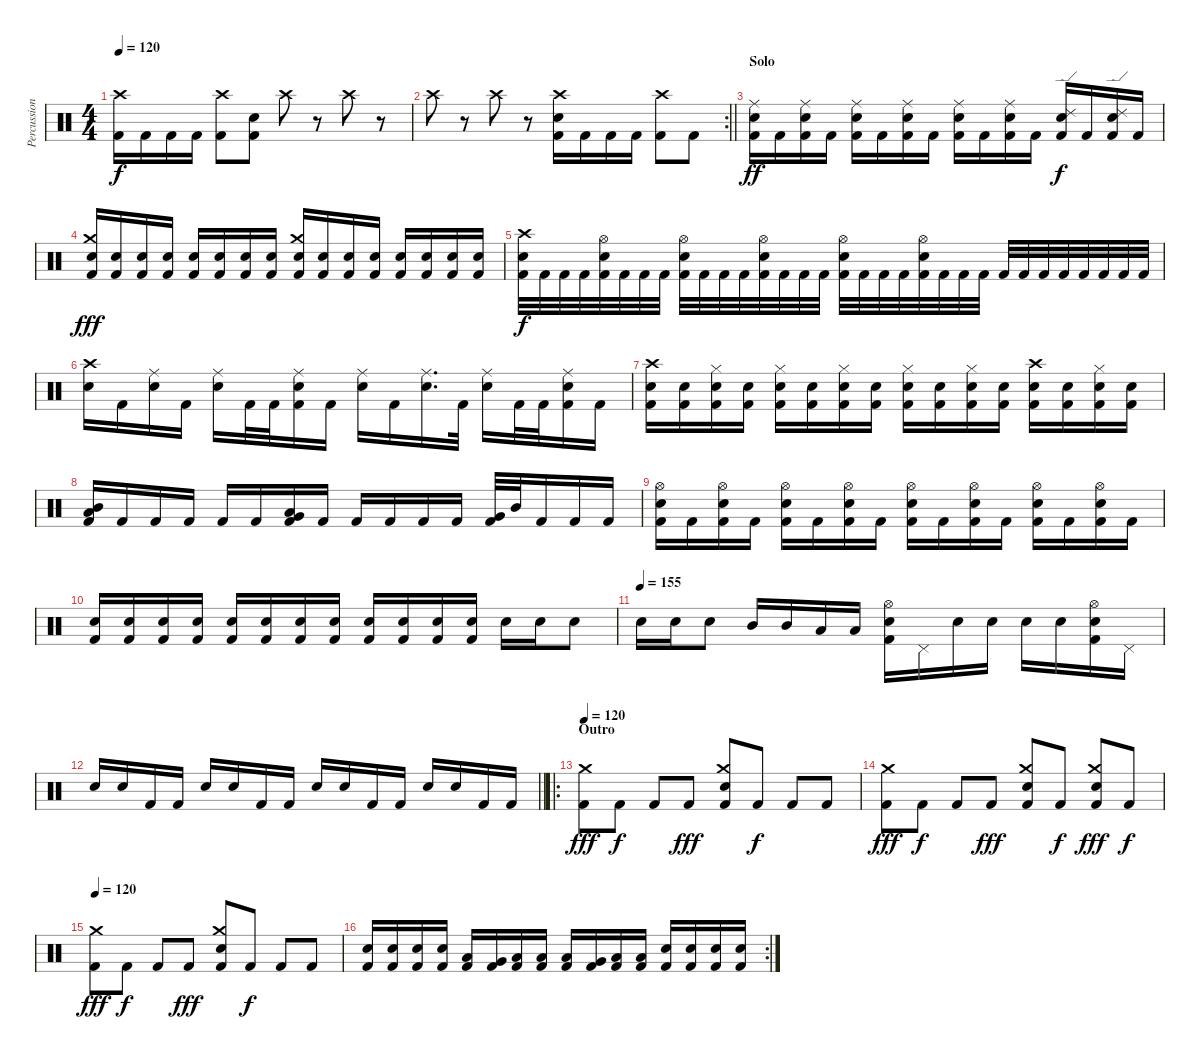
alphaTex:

\track ("Percussions" "Percussion") {instrument percussion}
\staff {score}
\articulation defaults
\ts (4 4)
\tempo 120
\clef neutral
\ks c
("Crash high (hit)" "Kick (hit) 2").16{dy f} "Kick (hit) 2".16 "Kick (hit) 2".16 "Kick (hit) 2".16 ("Crash high (hit)" "Kick (hit) 2").8 ("Electric Snare (hit)" "Kick (hit) 2").8 "Crash high (hit)".8 r.8 "Crash high (hit)".8 r.8 |
\rc 2
\barLineRight lightlight "Crash high (hit)".8
r.8 "Crash high (hit)".8 r.8 ("Crash high (hit)" "Electric Snare (hit)" "Kick (hit) 2").16 "Kick (hit) 2".16 "Kick (hit) 2".16 "Kick (hit) 2".16 ("Crash high (hit)" "Kick (hit) 2").8 "Kick (hit) 2".8 |
\section ("" "Solo")
("Ride (middle)" "Electric Snare (hit)" "Kick (hit) 2").16{dy ff volume 6} "Kick (hit) 2".16 ("Ride (middle)" "Electric Snare (hit)" "Kick (hit) 2").16 "Kick (hit) 2".16 ("Ride (middle)" "Electric Snare (hit)" "Kick (hit) 2").16 "Kick (hit) 2".16 ("Ride (middle)" "Electric Snare (hit)" "Kick (hit) 2").16 "Kick (hit) 2".16 ("Ride (middle)" "Electric Snare (hit)" "Kick (hit) 2").16 "Kick (hit) 2".16 ("Ride (middle)" "Electric Snare (hit)" "Kick (hit) 2").16 "Kick (hit) 2".16 ("Ride (edge) 2" "Electric Snare (hit)" "Kick (hit) 2").16{dy f} "Kick (hit) 2".16 ("Ride (edge) 2" "Electric Snare (hit)" "Kick (hit) 2").16 "Kick (hit) 2".16 |
("Crash medium (hit)" "Snare (hit) 2" "Kick (hit) 2").16{dy fff} ("Snare (hit) 2" "Kick (hit) 2").16 ("Snare (hit) 2" "Kick (hit) 2").16 ("Snare (hit) 2" "Kick (hit) 2").16 ("Snare (hit) 2" "Kick (hit) 2").16 ("Snare (hit) 2" "Kick (hit) 2").16 ("Snare (hit) 2" "Kick (hit) 2").16 ("Snare (hit) 2" "Kick (hit) 2").16 ("Crash medium (hit)" "Snare (hit) 2" "Kick (hit) 2").16 ("Snare (hit) 2" "Kick (hit) 2").16 ("Snare (hit) 2" "Kick (hit) 2").16 ("Snare (hit) 2" "Kick (hit) 2").16 ("Snare (hit) 2" "Kick (hit) 2").16 ("Snare (hit) 2" "Kick (hit) 2").16 ("Snare (hit) 2" "Kick (hit) 2").16 ("Snare (hit) 2" "Kick (hit) 2").16 |
("Crash high (hit)" "Snare (hit) 2" "Kick (hit) 2").32{dy f} "Kick (hit) 2".32 "Kick (hit) 2".32 "Kick (hit) 2".32 ("Hi-Hat (open)" "Snare (hit) 2" "Kick (hit) 2").32 "Kick (hit) 2".32 "Kick (hit) 2".32 "Kick (hit) 2".32 ("Hi-Hat (open)" "Snare (hit) 2" "Kick (hit) 2").32 "Kick (hit) 2".32 "Kick (hit) 2".32 "Kick (hit) 2".32 ("Hi-Hat (open)" "Snare (hit) 2" "Kick (hit) 2").32 "Kick (hit) 2".32 "Kick (hit) 2".32 "Kick (hit) 2".32 ("Hi-Hat (open)" "Snare (hit) 2" "Kick (hit) 2").32 "Kick (hit) 2".32 "Kick (hit) 2".32 "Kick (hit) 2".32 ("Hi-Hat (open)" "Snare (hit) 2" "Kick (hit) 2").32 "Kick (hit) 2".32 "Kick (hit) 2".32 "Kick (hit) 2".32 "Kick (hit) 2".32 "Kick (hit) 2".32 "Kick (hit) 2".32 "Kick (hit) 2".32 "Kick (hit) 2".32 "Kick (hit) 2".32 "Kick (hit) 2".32 "Kick (hit) 2".32 |
("Crash high (hit)" "Snare (hit) 2").16 "Kick (hit) 2".16 ("Ride (middle)" "Snare (hit) 2").16 "Kick (hit) 2".16 ("Ride (middle)" "Snare (hit) 2").16 "Kick (hit) 2".32 "Kick (hit) 2".32 ("Ride (middle)" "Snare (hit) 2" "Kick (hit) 2").16 "Kick (hit) 2".16 ("Ride (middle)" "Snare (hit) 2").16 "Kick (hit) 2".16 ("Ride (middle)" "Snare (hit) 2").16{d} "Kick (hit) 2".32 ("Ride (middle)" "Snare (hit) 2").16 "Kick (hit) 2".32 "Kick (hit) 2".32 ("Ride (middle)" "Snare (hit) 2" "Kick (hit) 2").16 "Kick (hit) 2".16 |
("Crash high (hit)" "Snare (hit) 2" "Kick (hit) 2").16 ("Snare (hit) 2" "Kick (hit) 2").16 ("Hi-Hat (closed)" "Snare (hit) 2" "Kick (hit) 2").16 ("Snare (hit) 2" "Kick (hit) 2").16 ("Hi-Hat (closed)" "Snare (hit) 2" "Kick (hit) 2").16 ("Snare (hit) 2" "Kick (hit) 2").16 ("Hi-Hat (closed)" "Snare (hit) 2" "Kick (hit) 2").16 ("Snare (hit) 2" "Kick (hit) 2").16 ("Hi-Hat (closed)" "Snare (hit) 2" "Kick (hit) 2").16 ("Snare (hit) 2" "Kick (hit) 2").16 ("Hi-Hat (closed)" "Snare (hit) 2" "Kick (hit) 2").16 ("Snare (hit) 2" "Kick (hit) 2").16 ("Crash high (hit)" "Snare (hit) 2" "Kick (hit) 2").16 ("Snare (hit) 2" "Kick (hit) 2").16 ("Hi-Hat (closed)" "Snare (hit) 2" "Kick (hit) 2").16 ("Snare (hit) 2" "Kick (hit) 2").16 |
("Low Tom (hit)" "Mid Tom (hit)" "Kick (hit) 2").16 "Kick (hit) 2".16 "Kick (hit) 2".16 "Kick (hit) 2".16 "Kick (hit) 2".16 "Kick (hit) 2".16 ("Very Low Tom (hit)" "Low Tom (hit)" "Kick (hit) 2").16 "Kick (hit) 2".16 "Kick (hit) 2".16 "Kick (hit) 2".16 "Kick (hit) 2".16 "Kick (hit) 2".16 ("Very Low Tom (hit)" "Kick (hit) 2").32 "Mid Tom (hit)".32 "Kick (hit) 2".16 "Kick (hit) 2".16 "Kick (hit) 2".16 |
("Hi-Hat (open)" "Electric Snare (hit)" "Kick (hit) 2").16 "Kick (hit) 2".16 ("Hi-Hat (open)" "Electric Snare (hit)" "Kick (hit) 2").16 "Kick (hit) 2".16 ("Hi-Hat (open)" "Electric Snare (hit)" "Kick (hit) 2").16 "Kick (hit) 2".16 ("Hi-Hat (open)" "Electric Snare (hit)" "Kick (hit) 2").16 "Kick (hit) 2".16 ("Hi-Hat (open)" "Electric Snare (hit)" "Kick (hit) 2").16 "Kick (hit) 2".16 ("Hi-Hat (open)" "Electric Snare (hit)" "Kick (hit) 2").16 "Kick (hit) 2".16 ("Hi-Hat (open)" "Electric Snare (hit)" "Kick (hit) 2").16 "Kick (hit) 2".16 ("Hi-Hat (open)" "Electric Snare (hit)" "Kick (hit) 2").16 "Kick (hit) 2".16 |
("Electric Snare (hit)" "Kick (hit) 2").16 ("Electric Snare (hit)" "Kick (hit) 2").16 ("Electric Snare (hit)" "Kick (hit) 2").16 ("Electric Snare (hit)" "Kick (hit) 2").16 ("Electric Snare (hit)" "Kick (hit) 2").16 ("Electric Snare (hit)" "Kick (hit) 2").16 ("Electric Snare (hit)" "Kick (hit) 2").16 ("Electric Snare (hit)" "Kick (hit) 2").16 ("Electric Snare (hit)" "Kick (hit) 2").16 ("Electric Snare (hit)" "Kick (hit) 2").16 ("Electric Snare (hit)" "Kick (hit) 2").16 ("Electric Snare (hit)" "Kick (hit) 2").16 "Electric Snare (hit)".16 "Electric Snare (hit)".16 "Electric Snare (hit)".8 |
\tempo (155)
"Electric Snare (hit)".16 "Electric Snare (hit)".16 "Electric Snare (hit)".8 "Mid Tom (hit)".16 "Mid Tom (hit)".16 "Low Tom (hit)".16 "Low Tom (hit)".16 ("Hi-Hat (open)" "Electric Snare (hit)" "Kick (hit) 2").16 "Pedal Hi-Hat (hit)".16 "Electric Snare (hit)".16 "Electric Snare (hit)".16 "Electric Snare (hit)".16 "Electric Snare (hit)".16 ("Hi-Hat (open)" "Electric Snare (hit)" "Kick (hit) 2").16 "Pedal Hi-Hat (hit)".16 |
\barLineRight lightlight "Electric Snare (hit)".16 "Electric Snare (hit)".16 "Kick (hit) 2".16 "Kick (hit) 2".16 "Electric Snare (hit)".16 "Electric Snare (hit)".16 "Kick (hit) 2".16 "Kick (hit) 2".16 "Electric Snare (hit)".16 "Electric Snare (hit)".16 "Kick (hit) 2".16 "Kick (hit) 2".16 "Electric Snare (hit)".16 "Electric Snare (hit)".16 "Kick (hit) 2".16 "Kick (hit) 2".16
|
\ro
\section ("" "Outro")
\tempo 120
("Crash medium (hit)" "Kick (hit) 2").8{dy fff volume 16} "Kick (hit) 2".8{dy f} "Kick (hit) 2".8 "Kick (hit) 2".8{dy fff} ("Crash medium (hit)" "Snare (hit) 2" "Kick (hit) 2").8 "Kick (hit) 2".8{dy f} "Kick (hit) 2".8 "Kick (hit) 2".8 |
("Crash medium (hit)" "Kick (hit) 2").8{dy fff} "Kick (hit) 2".8{dy f} "Kick (hit) 2".8 "Kick (hit) 2".8{dy fff} ("Crash medium (hit)" "Snare (hit) 2" "Kick (hit) 2").8 "Kick (hit) 2".8{dy f} ("Crash medium (hit)" "Snare (hit) 2" "Kick (hit) 2").8{dy fff} "Kick (hit) 2".8{dy f} |
\tempo 120
("Crash medium (hit)" "Kick (hit) 2").8{dy fff volume 16} "Kick (hit) 2".8{dy f} "Kick (hit) 2".8 "Kick (hit) 2".8{dy fff} ("Crash medium (hit)" "Snare (hit) 2" "Kick (hit) 2").8 "Kick (hit) 2".8{dy f} "Kick (hit) 2".8 "Kick (hit) 2".8 |
\rc 2
("Electric Snare (hit)" "Kick (hit) 2").16 ("Electric Snare (hit)" "Kick (hit) 2").16 ("Electric Snare (hit)" "Kick (hit) 2").16 ("Electric Snare (hit)" "Kick (hit) 2").16 ("Low Tom (hit)" "Kick (hit) 2").16 ("Very Low Tom (hit)" "Kick (hit) 2").16 ("Low Floor Tom (hit)" "Kick (hit) 2").16 ("Low Floor Tom (hit)" "Kick (hit) 2").16 ("Low Tom (hit)" "Kick (hit) 2").16 ("Very Low Tom (hit)" "Kick (hit) 2").16 ("Low Floor Tom (hit)" "Kick (hit) 2").16 ("Low Floor Tom (hit)" "Kick (hit) 2").16 ("Electric Snare (hit)" "Kick (hit) 2").16 ("Electric Snare (hit)" "Kick (hit) 2").16 ("Electric Snare (hit)" "Kick (hit) 2").16 ("Electric Snare (hit)" "Kick (hit) 2").16
